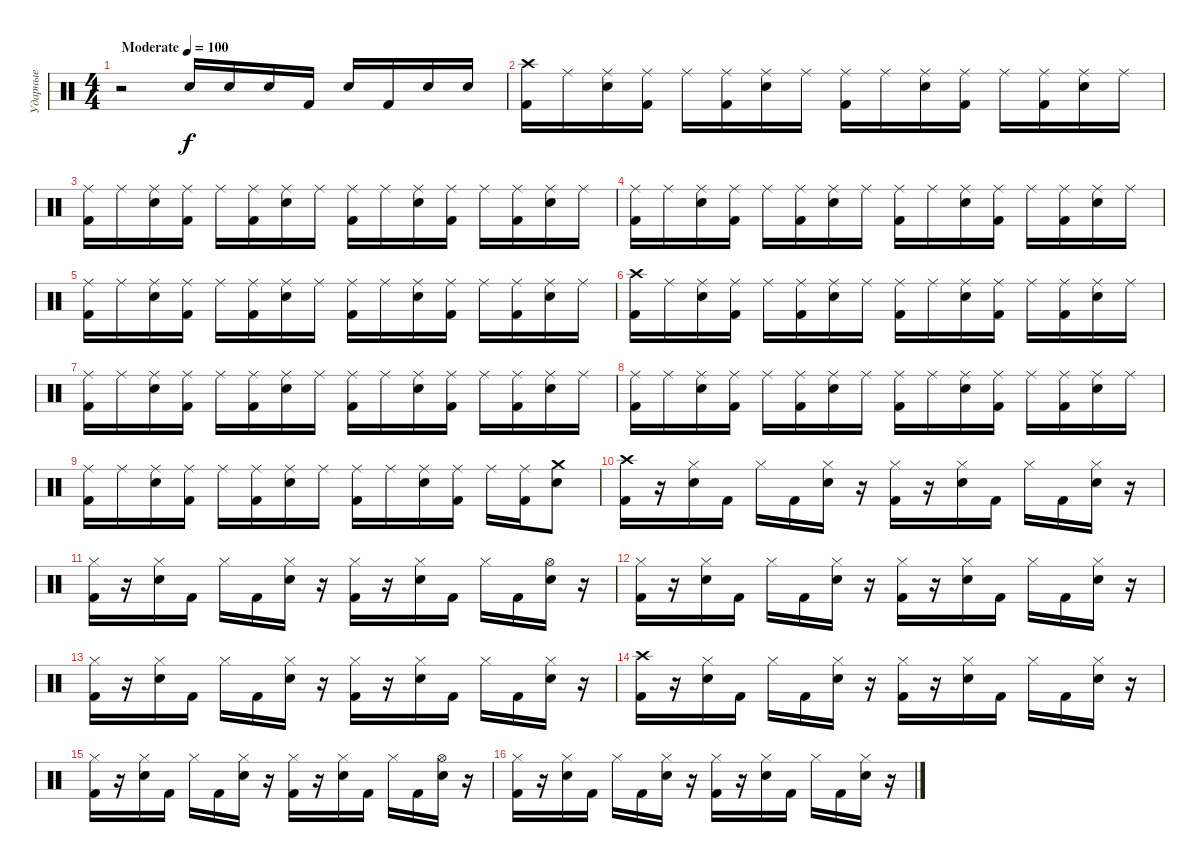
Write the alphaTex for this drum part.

\track ("Ударные" "Ударные") {instrument percussion}
\staff {score}
\articulation defaults
\ts (4 4)
\tempo (100 "Moderate")
\clef neutral
\ks c
r.2{dy f} "Electric Snare (hit)".16 "Electric Snare (hit)".16 "Electric Snare (hit)".16 "Kick (hit) 2".16 "Electric Snare (hit)".16 "Kick (hit) 2".16 "Electric Snare (hit)".16 "Electric Snare (hit)".16 |
("Crash high (hit)" "Kick (hit) 2").16 "Ride (middle)".16 ("Ride (middle)" "Electric Snare (hit)").16 ("Ride (middle)" "Kick (hit) 2").16 "Ride (middle)".16 ("Ride (middle)" "Kick (hit) 2").16 ("Ride (middle)" "Electric Snare (hit)").16 "Ride (middle)".16 ("Ride (middle)" "Kick (hit) 2").16 "Ride (middle)".16 ("Ride (middle)" "Electric Snare (hit)").16 ("Ride (middle)" "Kick (hit) 2").16 "Ride (middle)".16 ("Ride (middle)" "Kick (hit) 2").16 ("Ride (middle)" "Electric Snare (hit)").16 "Ride (middle)".16 |
("Ride (middle)" "Kick (hit) 2").16 "Ride (middle)".16 ("Ride (middle)" "Electric Snare (hit)").16 ("Ride (middle)" "Kick (hit) 2").16 "Ride (middle)".16 ("Ride (middle)" "Kick (hit) 2").16 ("Ride (middle)" "Electric Snare (hit)").16 "Ride (middle)".16 ("Ride (middle)" "Kick (hit) 2").16 "Ride (middle)".16 ("Ride (middle)" "Electric Snare (hit)").16 ("Ride (middle)" "Kick (hit) 2").16 "Ride (middle)".16 ("Ride (middle)" "Kick (hit) 2").16 ("Ride (middle)" "Electric Snare (hit)").16 "Ride (middle)".16 |
("Ride (middle)" "Kick (hit) 2").16 "Ride (middle)".16 ("Ride (middle)" "Electric Snare (hit)").16 ("Ride (middle)" "Kick (hit) 2").16 "Ride (middle)".16 ("Ride (middle)" "Kick (hit) 2").16 ("Ride (middle)" "Electric Snare (hit)").16 "Ride (middle)".16 ("Ride (middle)" "Kick (hit) 2").16 "Ride (middle)".16 ("Ride (middle)" "Electric Snare (hit)").16 ("Ride (middle)" "Kick (hit) 2").16 "Ride (middle)".16 ("Ride (middle)" "Kick (hit) 2").16 ("Ride (middle)" "Electric Snare (hit)").16 "Ride (middle)".16 |
("Ride (middle)" "Kick (hit) 2").16 "Ride (middle)".16 ("Ride (middle)" "Electric Snare (hit)").16 ("Ride (middle)" "Kick (hit) 2").16 "Ride (middle)".16 ("Ride (middle)" "Kick (hit) 2").16 ("Ride (middle)" "Electric Snare (hit)").16 "Ride (middle)".16 ("Ride (middle)" "Kick (hit) 2").16 "Ride (middle)".16 ("Ride (middle)" "Electric Snare (hit)").16 ("Ride (middle)" "Kick (hit) 2").16 "Ride (middle)".16 ("Ride (middle)" "Kick (hit) 2").16 ("Ride (middle)" "Electric Snare (hit)").16 "Ride (middle)".16 |
("Crash high (hit)" "Kick (hit) 2").16 "Ride (middle)".16 ("Ride (middle)" "Electric Snare (hit)").16 ("Ride (middle)" "Kick (hit) 2").16 "Ride (middle)".16 ("Ride (middle)" "Kick (hit) 2").16 ("Ride (middle)" "Electric Snare (hit)").16 "Ride (middle)".16 ("Ride (middle)" "Kick (hit) 2").16 "Ride (middle)".16 ("Ride (middle)" "Electric Snare (hit)").16 ("Ride (middle)" "Kick (hit) 2").16 "Ride (middle)".16 ("Ride (middle)" "Kick (hit) 2").16 ("Ride (middle)" "Electric Snare (hit)").16 "Ride (middle)".16 |
("Ride (middle)" "Kick (hit) 2").16 "Ride (middle)".16 ("Ride (middle)" "Electric Snare (hit)").16 ("Ride (middle)" "Kick (hit) 2").16 "Ride (middle)".16 ("Ride (middle)" "Kick (hit) 2").16 ("Ride (middle)" "Electric Snare (hit)").16 "Ride (middle)".16 ("Ride (middle)" "Kick (hit) 2").16 "Ride (middle)".16 ("Ride (middle)" "Electric Snare (hit)").16 ("Ride (middle)" "Kick (hit) 2").16 "Ride (middle)".16 ("Ride (middle)" "Kick (hit) 2").16 ("Ride (middle)" "Electric Snare (hit)").16 "Ride (middle)".16 |
("Ride (middle)" "Kick (hit) 2").16 "Ride (middle)".16 ("Ride (middle)" "Electric Snare (hit)").16 ("Ride (middle)" "Kick (hit) 2").16 "Ride (middle)".16 ("Ride (middle)" "Kick (hit) 2").16 ("Ride (middle)" "Electric Snare (hit)").16 "Ride (middle)".16 ("Ride (middle)" "Kick (hit) 2").16 "Ride (middle)".16 ("Ride (middle)" "Electric Snare (hit)").16 ("Ride (middle)" "Kick (hit) 2").16 "Ride (middle)".16 ("Ride (middle)" "Kick (hit) 2").16 ("Ride (middle)" "Electric Snare (hit)").16 "Ride (middle)".16 |
("Ride (middle)" "Kick (hit) 2").16 "Ride (middle)".16 ("Ride (middle)" "Electric Snare (hit)").16 ("Ride (middle)" "Kick (hit) 2").16 "Ride (middle)".16 ("Ride (middle)" "Kick (hit) 2").16 ("Ride (middle)" "Electric Snare (hit)").16 "Ride (middle)".16 ("Ride (middle)" "Kick (hit) 2").16 "Ride (middle)".16 ("Ride (middle)" "Electric Snare (hit)").16 ("Ride (middle)" "Kick (hit) 2").16 "Ride (middle)".16 ("Ride (middle)" "Kick (hit) 2").16 ("Crash medium (hit)" "Electric Snare (hit)").8 |
("Crash high (hit)" "Kick (hit) 2").16 r.16 ("Hi-Hat (closed)" "Electric Snare (hit)").16 "Kick (hit) 2".16 "Hi-Hat (closed)".16 "Kick (hit) 2".16 ("Hi-Hat (closed)" "Electric Snare (hit)").16 r.16 ("Hi-Hat (closed)" "Kick (hit) 2").16 r.16 ("Hi-Hat (closed)" "Electric Snare (hit)").16 "Kick (hit) 2".16 "Hi-Hat (closed)".16 "Kick (hit) 2".16 ("Hi-Hat (closed)" "Electric Snare (hit)").16 r.16 |
("Hi-Hat (closed)" "Kick (hit) 2").16 r.16 ("Hi-Hat (closed)" "Electric Snare (hit)").16 "Kick (hit) 2".16 "Hi-Hat (closed)".16 "Kick (hit) 2".16 ("Hi-Hat (closed)" "Electric Snare (hit)").16 r.16 ("Hi-Hat (closed)" "Kick (hit) 2").16 r.16 ("Hi-Hat (closed)" "Electric Snare (hit)").16 "Kick (hit) 2".16 "Hi-Hat (closed)".16 "Kick (hit) 2".16 ("Hi-Hat (open)" "Electric Snare (hit)").16 r.16 |
("Hi-Hat (closed)" "Kick (hit) 2").16 r.16 ("Hi-Hat (closed)" "Electric Snare (hit)").16 "Kick (hit) 2".16 "Hi-Hat (closed)".16 "Kick (hit) 2".16 ("Hi-Hat (closed)" "Electric Snare (hit)").16 r.16 ("Hi-Hat (closed)" "Kick (hit) 2").16 r.16 ("Hi-Hat (closed)" "Electric Snare (hit)").16 "Kick (hit) 2".16 "Hi-Hat (closed)".16 "Kick (hit) 2".16 ("Hi-Hat (closed)" "Electric Snare (hit)").16 r.16 |
("Hi-Hat (closed)" "Kick (hit) 2").16 r.16 ("Hi-Hat (closed)" "Electric Snare (hit)").16 "Kick (hit) 2".16 "Hi-Hat (closed)".16 "Kick (hit) 2".16 ("Hi-Hat (closed)" "Electric Snare (hit)").16 r.16 ("Hi-Hat (closed)" "Kick (hit) 2").16 r.16 ("Hi-Hat (closed)" "Electric Snare (hit)").16 "Kick (hit) 2".16 "Hi-Hat (closed)".16 "Kick (hit) 2".16 ("Hi-Hat (closed)" "Electric Snare (hit)").16 r.16 |
("Crash high (hit)" "Kick (hit) 2").16 r.16 ("Hi-Hat (closed)" "Electric Snare (hit)").16 "Kick (hit) 2".16 "Hi-Hat (closed)".16 "Kick (hit) 2".16 ("Hi-Hat (closed)" "Electric Snare (hit)").16 r.16 ("Hi-Hat (closed)" "Kick (hit) 2").16 r.16 ("Hi-Hat (closed)" "Electric Snare (hit)").16 "Kick (hit) 2".16 "Hi-Hat (closed)".16 "Kick (hit) 2".16 ("Hi-Hat (closed)" "Electric Snare (hit)").16 r.16 |
("Hi-Hat (closed)" "Kick (hit) 2").16 r.16 ("Hi-Hat (closed)" "Electric Snare (hit)").16 "Kick (hit) 2".16 "Hi-Hat (closed)".16 "Kick (hit) 2".16 ("Hi-Hat (closed)" "Electric Snare (hit)").16 r.16 ("Hi-Hat (closed)" "Kick (hit) 2").16 r.16 ("Hi-Hat (closed)" "Electric Snare (hit)").16 "Kick (hit) 2".16 "Hi-Hat (closed)".16 "Kick (hit) 2".16 ("Hi-Hat (open)" "Electric Snare (hit)").16 r.16 |
("Hi-Hat (closed)" "Kick (hit) 2").16 r.16 ("Hi-Hat (closed)" "Electric Snare (hit)").16 "Kick (hit) 2".16 "Hi-Hat (closed)".16 "Kick (hit) 2".16 ("Hi-Hat (closed)" "Electric Snare (hit)").16 r.16 ("Hi-Hat (closed)" "Kick (hit) 2").16 r.16 ("Hi-Hat (closed)" "Electric Snare (hit)").16 "Kick (hit) 2".16 "Hi-Hat (closed)".16 "Kick (hit) 2".16 ("Hi-Hat (closed)" "Electric Snare (hit)").16 r.16
